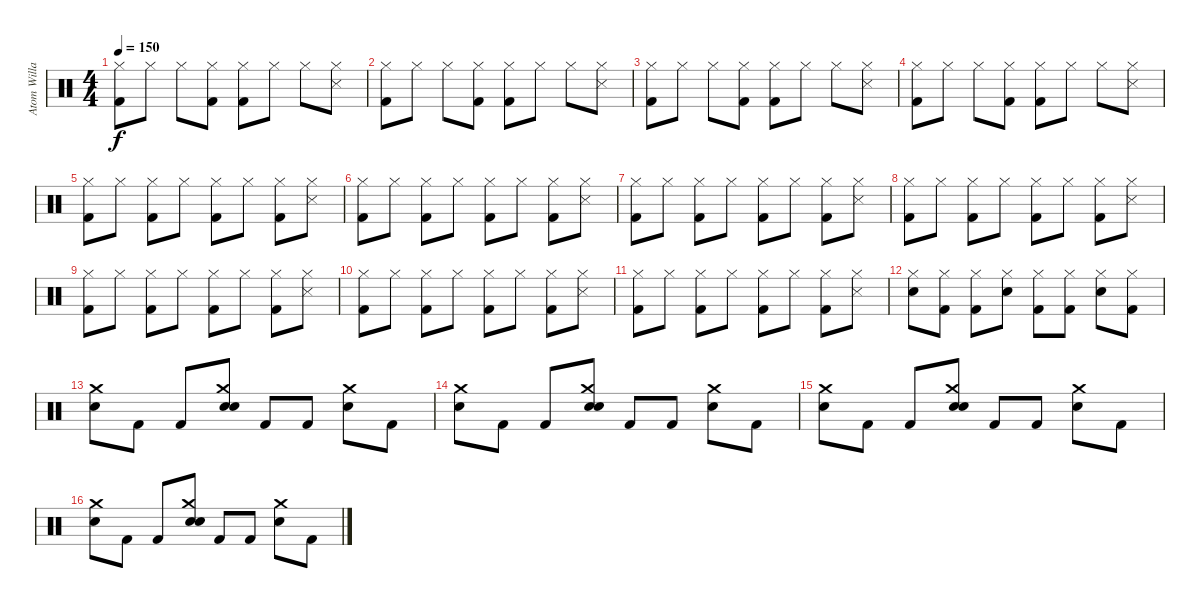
\track ("Atom Willard - Drums" "Atom Willa") {instrument percussion}
\staff {score}
\articulation defaults
\ts (4 4)
\tempo 150
\clef neutral
\ks c
("Hi-Hat (closed)" "Kick (hit) 2").8{dy f} "Hi-Hat (closed)".8 "Hi-Hat (closed)".8 ("Hi-Hat (closed)" "Kick (hit) 2").8 ("Hi-Hat (closed)" "Kick (hit) 2").8 "Hi-Hat (closed)".8 "Hi-Hat (closed)".8 ("Hi-Hat (closed)" "Snare (side stick) 3").8 |
("Hi-Hat (closed)" "Kick (hit) 2").8 "Hi-Hat (closed)".8 "Hi-Hat (closed)".8 ("Hi-Hat (closed)" "Kick (hit) 2").8 ("Hi-Hat (closed)" "Kick (hit) 2").8 "Hi-Hat (closed)".8 "Hi-Hat (closed)".8 ("Hi-Hat (closed)" "Snare (side stick) 3").8 |
("Hi-Hat (closed)" "Kick (hit) 2").8 "Hi-Hat (closed)".8 "Hi-Hat (closed)".8 ("Hi-Hat (closed)" "Kick (hit) 2").8 ("Hi-Hat (closed)" "Kick (hit) 2").8 "Hi-Hat (closed)".8 "Hi-Hat (closed)".8 ("Hi-Hat (closed)" "Snare (side stick) 3").8 |
("Hi-Hat (closed)" "Kick (hit) 2").8 "Hi-Hat (closed)".8 "Hi-Hat (closed)".8 ("Hi-Hat (closed)" "Kick (hit) 2").8 ("Hi-Hat (closed)" "Kick (hit) 2").8 "Hi-Hat (closed)".8 "Hi-Hat (closed)".8 ("Hi-Hat (closed)" "Snare (side stick) 3").8 |
("Hi-Hat (closed)" "Kick (hit) 2").8 "Hi-Hat (closed)".8 ("Hi-Hat (closed)" "Kick (hit) 2").8 "Hi-Hat (closed)".8 ("Hi-Hat (closed)" "Kick (hit) 2").8 "Hi-Hat (closed)".8 ("Hi-Hat (closed)" "Kick (hit) 2").8 ("Hi-Hat (closed)" "Snare (side stick) 3").8 |
("Hi-Hat (closed)" "Kick (hit) 2").8 "Hi-Hat (closed)".8 ("Hi-Hat (closed)" "Kick (hit) 2").8 "Hi-Hat (closed)".8 ("Hi-Hat (closed)" "Kick (hit) 2").8 "Hi-Hat (closed)".8 ("Hi-Hat (closed)" "Kick (hit) 2").8 ("Hi-Hat (closed)" "Snare (side stick) 3").8 |
("Hi-Hat (closed)" "Kick (hit) 2").8 "Hi-Hat (closed)".8 ("Hi-Hat (closed)" "Kick (hit) 2").8 "Hi-Hat (closed)".8 ("Hi-Hat (closed)" "Kick (hit) 2").8 "Hi-Hat (closed)".8 ("Hi-Hat (closed)" "Kick (hit) 2").8 ("Hi-Hat (closed)" "Snare (side stick) 3").8 |
("Hi-Hat (closed)" "Kick (hit) 2").8 "Hi-Hat (closed)".8 ("Hi-Hat (closed)" "Kick (hit) 2").8 "Hi-Hat (closed)".8 ("Hi-Hat (closed)" "Kick (hit) 2").8 "Hi-Hat (closed)".8 ("Hi-Hat (closed)" "Kick (hit) 2").8 ("Hi-Hat (closed)" "Snare (side stick) 3").8 |
("Hi-Hat (closed)" "Kick (hit) 2").8 "Hi-Hat (closed)".8 ("Hi-Hat (closed)" "Kick (hit) 2").8 "Hi-Hat (closed)".8 ("Hi-Hat (closed)" "Kick (hit) 2").8 "Hi-Hat (closed)".8 ("Hi-Hat (closed)" "Kick (hit) 2").8 ("Hi-Hat (closed)" "Snare (side stick) 3").8 |
("Hi-Hat (closed)" "Kick (hit) 2").8 "Hi-Hat (closed)".8 ("Hi-Hat (closed)" "Kick (hit) 2").8 "Hi-Hat (closed)".8 ("Hi-Hat (closed)" "Kick (hit) 2").8 "Hi-Hat (closed)".8 ("Hi-Hat (closed)" "Kick (hit) 2").8 ("Hi-Hat (closed)" "Snare (side stick) 3").8 |
("Hi-Hat (closed)" "Kick (hit) 2").8 "Hi-Hat (closed)".8 ("Hi-Hat (closed)" "Kick (hit) 2").8 "Hi-Hat (closed)".8 ("Hi-Hat (closed)" "Kick (hit) 2").8 "Hi-Hat (closed)".8 ("Hi-Hat (closed)" "Kick (hit) 2").8 ("Hi-Hat (closed)" "Snare (side stick) 3").8 |
("Hi-Hat (closed)" "Electric Snare (hit)").8 ("Hi-Hat (closed)" "Kick (hit) 2").8 ("Hi-Hat (closed)" "Kick (hit) 2").8 ("Hi-Hat (closed)" "Electric Snare (hit)").8 ("Hi-Hat (closed)" "Kick (hit) 2").8 ("Hi-Hat (closed)" "Kick (hit) 2").8 ("Hi-Hat (closed)" "Electric Snare (hit)").8 ("Hi-Hat (closed)" "Kick (hit) 2").8 |
("Crash medium (hit)" "Electric Snare (hit)").8 "Kick (hit) 2".8 "Kick (hit) 2".8 ("Crash medium (hit)" "Electric Snare (hit)" "Snare (hit)").8 "Kick (hit) 2".8 "Kick (hit) 2".8 ("Crash medium (hit)" "Electric Snare (hit)").8 "Kick (hit) 2".8 |
("Crash medium (hit)" "Electric Snare (hit)").8 "Kick (hit) 2".8 "Kick (hit) 2".8 ("Crash medium (hit)" "Electric Snare (hit)" "Snare (hit)").8 "Kick (hit) 2".8 "Kick (hit) 2".8 ("Crash medium (hit)" "Electric Snare (hit)").8 "Kick (hit) 2".8 |
("Crash medium (hit)" "Electric Snare (hit)").8 "Kick (hit) 2".8 "Kick (hit) 2".8 ("Crash medium (hit)" "Electric Snare (hit)" "Snare (hit)").8 "Kick (hit) 2".8 "Kick (hit) 2".8 ("Crash medium (hit)" "Electric Snare (hit)").8 "Kick (hit) 2".8 |
("Crash medium (hit)" "Electric Snare (hit)").8 "Kick (hit) 2".8 "Kick (hit) 2".8 ("Crash medium (hit)" "Electric Snare (hit)" "Snare (hit)").8 "Kick (hit) 2".8 "Kick (hit) 2".8 ("Crash medium (hit)" "Electric Snare (hit)").8 "Kick (hit) 2".8
